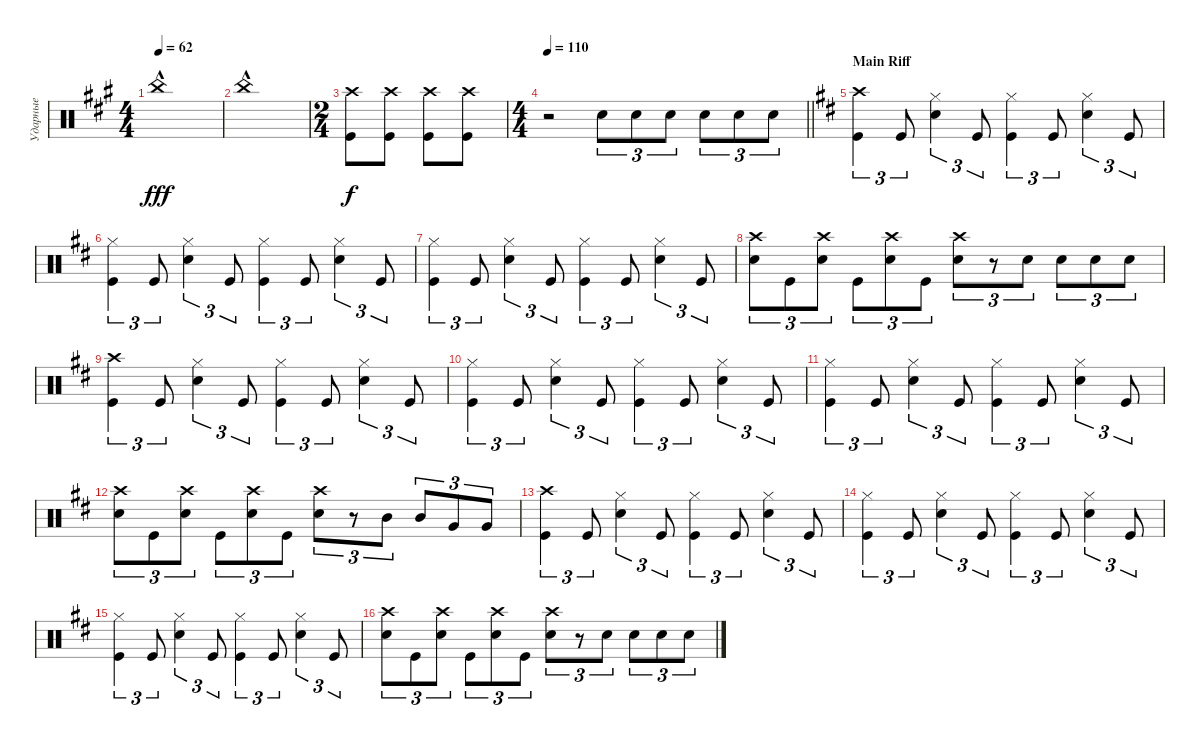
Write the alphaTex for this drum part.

\track ("Ударные" "Ударные") {instrument percussion}
\staff {score}
\articulation defaults
\ts (4 4)
\tempo 62
\clef neutral
\ks f#minor "China (hit)"{hac}.1{dy fff}
|
"China (hit)"{hac}.1 |
\ts (2 4)
("Kick (hit)" "Crash high (hit)").8{dy f} ("Kick (hit)" "Crash high (hit)").8 ("Kick (hit)" "Crash high (hit)").8 ("Kick (hit)" "Crash high (hit)").8 |
\ts (4 4)
\tempo 110
\barLineRight lightlight
r.2 "Snare (hit) 2".8{tu (3 2)} "Snare (hit) 2".8{tu (3 2)} "Snare (hit) 2".8{tu (3 2)} "Snare (hit) 2".8{tu (3 2)} "Snare (hit) 2".8{tu (3 2)} "Snare (hit) 2".8{tu (3 2)} |
\section ("" "Main Riff")
\ks bminor
("Kick (hit)" "Crash high (hit)").4{tu (3 2)} "Kick (hit)".8{tu (3 2)} ("Snare (hit) 2" "Hi-Hat (closed)").4{tu (3 2)} "Kick (hit)".8{tu (3 2)} ("Kick (hit)" "Hi-Hat (closed)").4{tu (3 2)} "Kick (hit)".8{tu (3 2)} ("Snare (hit) 2" "Hi-Hat (closed)").4{tu (3 2)} "Kick (hit)".8{tu (3 2)} |
("Kick (hit)" "Hi-Hat (closed)").4{tu (3 2)} "Kick (hit)".8{tu (3 2)} ("Snare (hit) 2" "Hi-Hat (closed)").4{tu (3 2)} "Kick (hit)".8{tu (3 2)} ("Kick (hit)" "Hi-Hat (closed)").4{tu (3 2)} "Kick (hit)".8{tu (3 2)} ("Snare (hit) 2" "Hi-Hat (closed)").4{tu (3 2)} "Kick (hit)".8{tu (3 2)} |
("Kick (hit)" "Hi-Hat (closed)").4{tu (3 2)} "Kick (hit)".8{tu (3 2)} ("Snare (hit) 2" "Hi-Hat (closed)").4{tu (3 2)} "Kick (hit)".8{tu (3 2)} ("Kick (hit)" "Hi-Hat (closed)").4{tu (3 2)} "Kick (hit)".8{tu (3 2)} ("Snare (hit) 2" "Hi-Hat (closed)").4{tu (3 2)} "Kick (hit)".8{tu (3 2)} |
("Snare (hit) 2" "Crash high (hit)").8{tu (3 2)} "Kick (hit)".8{tu (3 2)} ("Snare (hit) 2" "Crash high (hit)").8{tu (3 2)} "Kick (hit)".8{tu (3 2)} ("Snare (hit) 2" "Crash high (hit)").8{tu (3 2)} "Kick (hit)".8{tu (3 2)} ("Snare (hit) 2" "Crash high (hit)").8{tu (3 2)} r.8{tu (3 2)} "Snare (hit) 2".8{tu (3 2)} "Snare (hit) 2".8{tu (3 2)} "Snare (hit) 2".8{tu (3 2)} "Snare (hit) 2".8{tu (3 2)} |
("Kick (hit)" "Crash high (hit)").4{tu (3 2)} "Kick (hit)".8{tu (3 2)} ("Snare (hit) 2" "Hi-Hat (closed)").4{tu (3 2)} "Kick (hit)".8{tu (3 2)} ("Kick (hit)" "Hi-Hat (closed)").4{tu (3 2)} "Kick (hit)".8{tu (3 2)} ("Snare (hit) 2" "Hi-Hat (closed)").4{tu (3 2)} "Kick (hit)".8{tu (3 2)} |
("Kick (hit)" "Hi-Hat (closed)").4{tu (3 2)} "Kick (hit)".8{tu (3 2)} ("Snare (hit) 2" "Hi-Hat (closed)").4{tu (3 2)} "Kick (hit)".8{tu (3 2)} ("Kick (hit)" "Hi-Hat (closed)").4{tu (3 2)} "Kick (hit)".8{tu (3 2)} ("Snare (hit) 2" "Hi-Hat (closed)").4{tu (3 2)} "Kick (hit)".8{tu (3 2)} |
("Kick (hit)" "Hi-Hat (closed)").4{tu (3 2)} "Kick (hit)".8{tu (3 2)} ("Snare (hit) 2" "Hi-Hat (closed)").4{tu (3 2)} "Kick (hit)".8{tu (3 2)} ("Kick (hit)" "Hi-Hat (closed)").4{tu (3 2)} "Kick (hit)".8{tu (3 2)} ("Snare (hit) 2" "Hi-Hat (closed)").4{tu (3 2)} "Kick (hit)".8{tu (3 2)} |
("Snare (hit) 2" "Crash high (hit)").8{tu (3 2)} "Kick (hit)".8{tu (3 2)} ("Snare (hit) 2" "Crash high (hit)").8{tu (3 2)} "Kick (hit)".8{tu (3 2)} ("Snare (hit) 2" "Crash high (hit)").8{tu (3 2)} "Kick (hit)".8{tu (3 2)} ("Snare (hit) 2" "Crash high (hit)").8{tu (3 2)} r.8{tu (3 2)} "Mid Tom (hit)".8{tu (3 2)} "Mid Tom (hit)".8{tu (3 2)} "Very Low Tom (hit)".8{tu (3 2)} "Very Low Tom (hit)".8{tu (3 2)} |
("Kick (hit)" "Crash high (hit)").4{tu (3 2)} "Kick (hit)".8{tu (3 2)} ("Snare (hit) 2" "Hi-Hat (closed)").4{tu (3 2)} "Kick (hit)".8{tu (3 2)} ("Kick (hit)" "Hi-Hat (closed)").4{tu (3 2)} "Kick (hit)".8{tu (3 2)} ("Snare (hit) 2" "Hi-Hat (closed)").4{tu (3 2)} "Kick (hit)".8{tu (3 2)} |
("Kick (hit)" "Hi-Hat (closed)").4{tu (3 2)} "Kick (hit)".8{tu (3 2)} ("Snare (hit) 2" "Hi-Hat (closed)").4{tu (3 2)} "Kick (hit)".8{tu (3 2)} ("Kick (hit)" "Hi-Hat (closed)").4{tu (3 2)} "Kick (hit)".8{tu (3 2)} ("Snare (hit) 2" "Hi-Hat (closed)").4{tu (3 2)} "Kick (hit)".8{tu (3 2)} |
("Kick (hit)" "Hi-Hat (closed)").4{tu (3 2)} "Kick (hit)".8{tu (3 2)} ("Snare (hit) 2" "Hi-Hat (closed)").4{tu (3 2)} "Kick (hit)".8{tu (3 2)} ("Kick (hit)" "Hi-Hat (closed)").4{tu (3 2)} "Kick (hit)".8{tu (3 2)} ("Snare (hit) 2" "Hi-Hat (closed)").4{tu (3 2)} "Kick (hit)".8{tu (3 2)} |
("Snare (hit) 2" "Crash high (hit)").8{tu (3 2)} "Kick (hit)".8{tu (3 2)} ("Snare (hit) 2" "Crash high (hit)").8{tu (3 2)} "Kick (hit)".8{tu (3 2)} ("Snare (hit) 2" "Crash high (hit)").8{tu (3 2)} "Kick (hit)".8{tu (3 2)} ("Snare (hit) 2" "Crash high (hit)").8{tu (3 2)} r.8{tu (3 2)} "Snare (hit) 2".8{tu (3 2)} "Snare (hit) 2".8{tu (3 2)} "Snare (hit) 2".8{tu (3 2)} "Snare (hit) 2".8{tu (3 2)}
